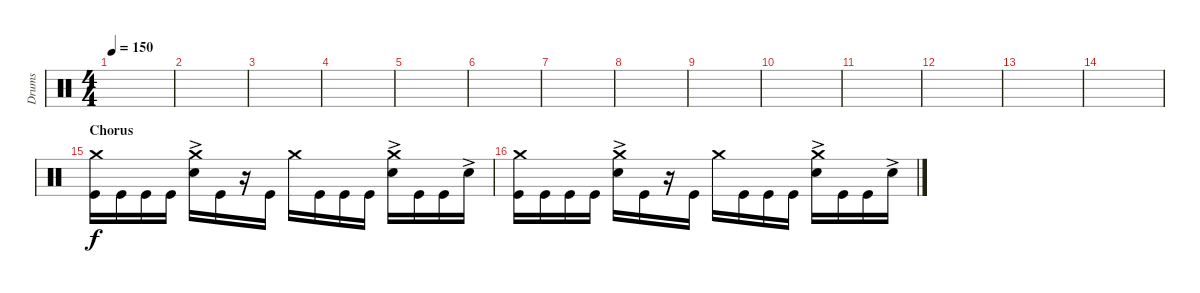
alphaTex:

\track ("Drums" "Drums") {instrument percussion}
\staff {score}
\articulation defaults
\ts (4 4)
\tempo 150
\clef neutral
\ks c
|
|
|
|
|
|
|
|
|
|
|
|
|
|
\section ("" "Chorus")
("Crash medium (hit)" "Kick (hit)").16 "Kick (hit)".16 "Kick (hit)".16 "Kick (hit)".16 ("Crash medium (hit)" "Snare (hit) 2"{ac}).16 "Kick (hit)".16 r.16 "Kick (hit)".16 "Crash medium (hit)".16 "Kick (hit)".16 "Kick (hit)".16 "Kick (hit)".16 ("Crash medium (hit)" "Snare (hit) 2"{ac}).16 "Kick (hit)".16 "Kick (hit)".16 "Snare (hit) 2"{ac}.16 |
("Crash medium (hit)" "Kick (hit)").16 "Kick (hit)".16 "Kick (hit)".16 "Kick (hit)".16 ("Crash medium (hit)" "Snare (hit) 2"{ac}).16 "Kick (hit)".16 r.16 "Kick (hit)".16 "Crash medium (hit)".16 "Kick (hit)".16 "Kick (hit)".16 "Kick (hit)".16 ("Crash medium (hit)" "Snare (hit) 2"{ac}).16 "Kick (hit)".16 "Kick (hit)".16 "Snare (hit) 2"{ac}.16
